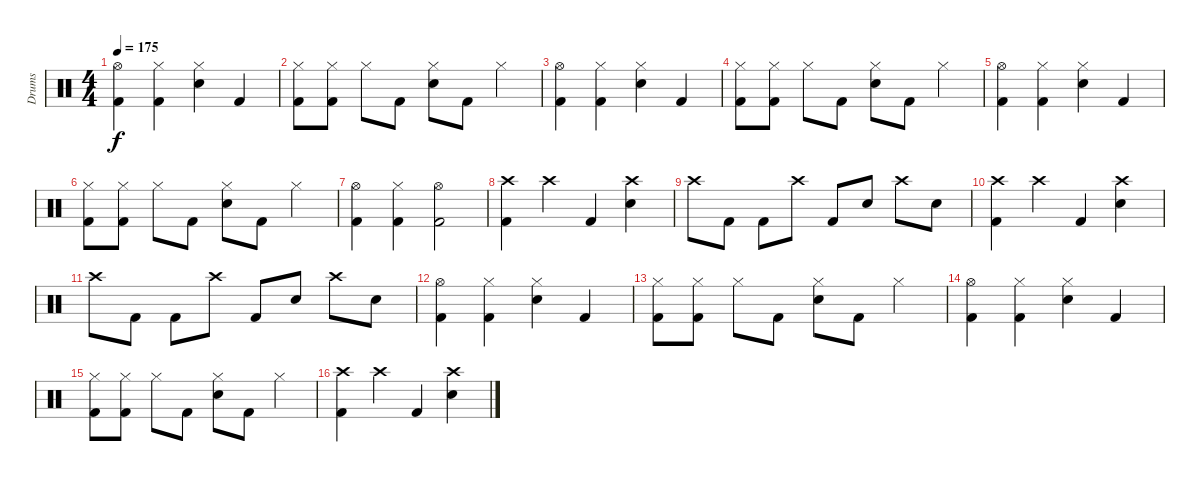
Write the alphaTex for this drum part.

\track ("Drums" "Drums") {instrument percussion}
\staff {score}
\articulation defaults
\ts (4 4)
\tempo 175
\clef neutral
\ks c
("Hi-Hat (open)" "Kick (hit) 2").4{dy f} ("Hi-Hat (closed)" "Kick (hit) 2").4 ("Hi-Hat (closed)" "Snare (hit) 2").4 "Kick (hit) 2".4 |
("Hi-Hat (closed)" "Kick (hit) 2").8 ("Hi-Hat (closed)" "Kick (hit) 2").8 "Hi-Hat (closed)".8 "Kick (hit) 2".8 ("Hi-Hat (closed)" "Snare (hit) 2").8 "Kick (hit) 2".8 "Hi-Hat (closed)".4 |
("Hi-Hat (open)" "Kick (hit) 2").4 ("Hi-Hat (closed)" "Kick (hit) 2").4 ("Hi-Hat (closed)" "Snare (hit) 2").4 "Kick (hit) 2".4 |
("Hi-Hat (closed)" "Kick (hit) 2").8 ("Hi-Hat (closed)" "Kick (hit) 2").8 "Hi-Hat (closed)".8 "Kick (hit) 2".8 ("Hi-Hat (closed)" "Snare (hit) 2").8 "Kick (hit) 2".8 "Hi-Hat (closed)".4 |
("Hi-Hat (open)" "Kick (hit) 2").4 ("Hi-Hat (closed)" "Kick (hit) 2").4 ("Hi-Hat (closed)" "Snare (hit) 2").4 "Kick (hit) 2".4 |
("Hi-Hat (closed)" "Kick (hit) 2").8 ("Hi-Hat (closed)" "Kick (hit) 2").8 "Hi-Hat (closed)".8 "Kick (hit) 2".8 ("Hi-Hat (closed)" "Snare (hit) 2").8 "Kick (hit) 2".8 "Hi-Hat (closed)".4 |
("Hi-Hat (open)" "Kick (hit) 2").4 ("Hi-Hat (closed)" "Kick (hit) 2").4 ("Hi-Hat (open)" "Kick (hit) 2").2 |
("Crash high (hit)" "Kick (hit) 2").4 "Crash high (hit)".4 "Kick (hit) 2".4 ("Crash high (hit)" "Snare (hit) 2").4 |
"Crash high (hit)".8 "Kick (hit) 2".8 "Kick (hit) 2".8 "Crash high (hit)".8 "Kick (hit) 2".8 "Snare (hit) 2".8 "Crash high (hit)".8 "Snare (hit) 2".8 |
("Crash high (hit)" "Kick (hit) 2").4 "Crash high (hit)".4 "Kick (hit) 2".4 ("Crash high (hit)" "Snare (hit) 2").4 |
"Crash high (hit)".8 "Kick (hit) 2".8 "Kick (hit) 2".8 "Crash high (hit)".8 "Kick (hit) 2".8 "Snare (hit) 2".8 "Crash high (hit)".8 "Snare (hit) 2".8 |
("Hi-Hat (open)" "Kick (hit) 2").4 ("Hi-Hat (closed)" "Kick (hit) 2").4 ("Hi-Hat (closed)" "Snare (hit) 2").4 "Kick (hit) 2".4 |
("Hi-Hat (closed)" "Kick (hit) 2").8 ("Hi-Hat (closed)" "Kick (hit) 2").8 "Hi-Hat (closed)".8 "Kick (hit) 2".8 ("Hi-Hat (closed)" "Snare (hit) 2").8 "Kick (hit) 2".8 "Hi-Hat (closed)".4 |
("Hi-Hat (open)" "Kick (hit) 2").4 ("Hi-Hat (closed)" "Kick (hit) 2").4 ("Hi-Hat (closed)" "Snare (hit) 2").4 "Kick (hit) 2".4 |
("Hi-Hat (closed)" "Kick (hit) 2").8 ("Hi-Hat (closed)" "Kick (hit) 2").8 "Hi-Hat (closed)".8 "Kick (hit) 2".8 ("Hi-Hat (closed)" "Snare (hit) 2").8 "Kick (hit) 2".8 "Hi-Hat (closed)".4 |
("Crash high (hit)" "Kick (hit) 2").4 "Crash high (hit)".4 "Kick (hit) 2".4 ("Crash high (hit)" "Snare (hit) 2").4
